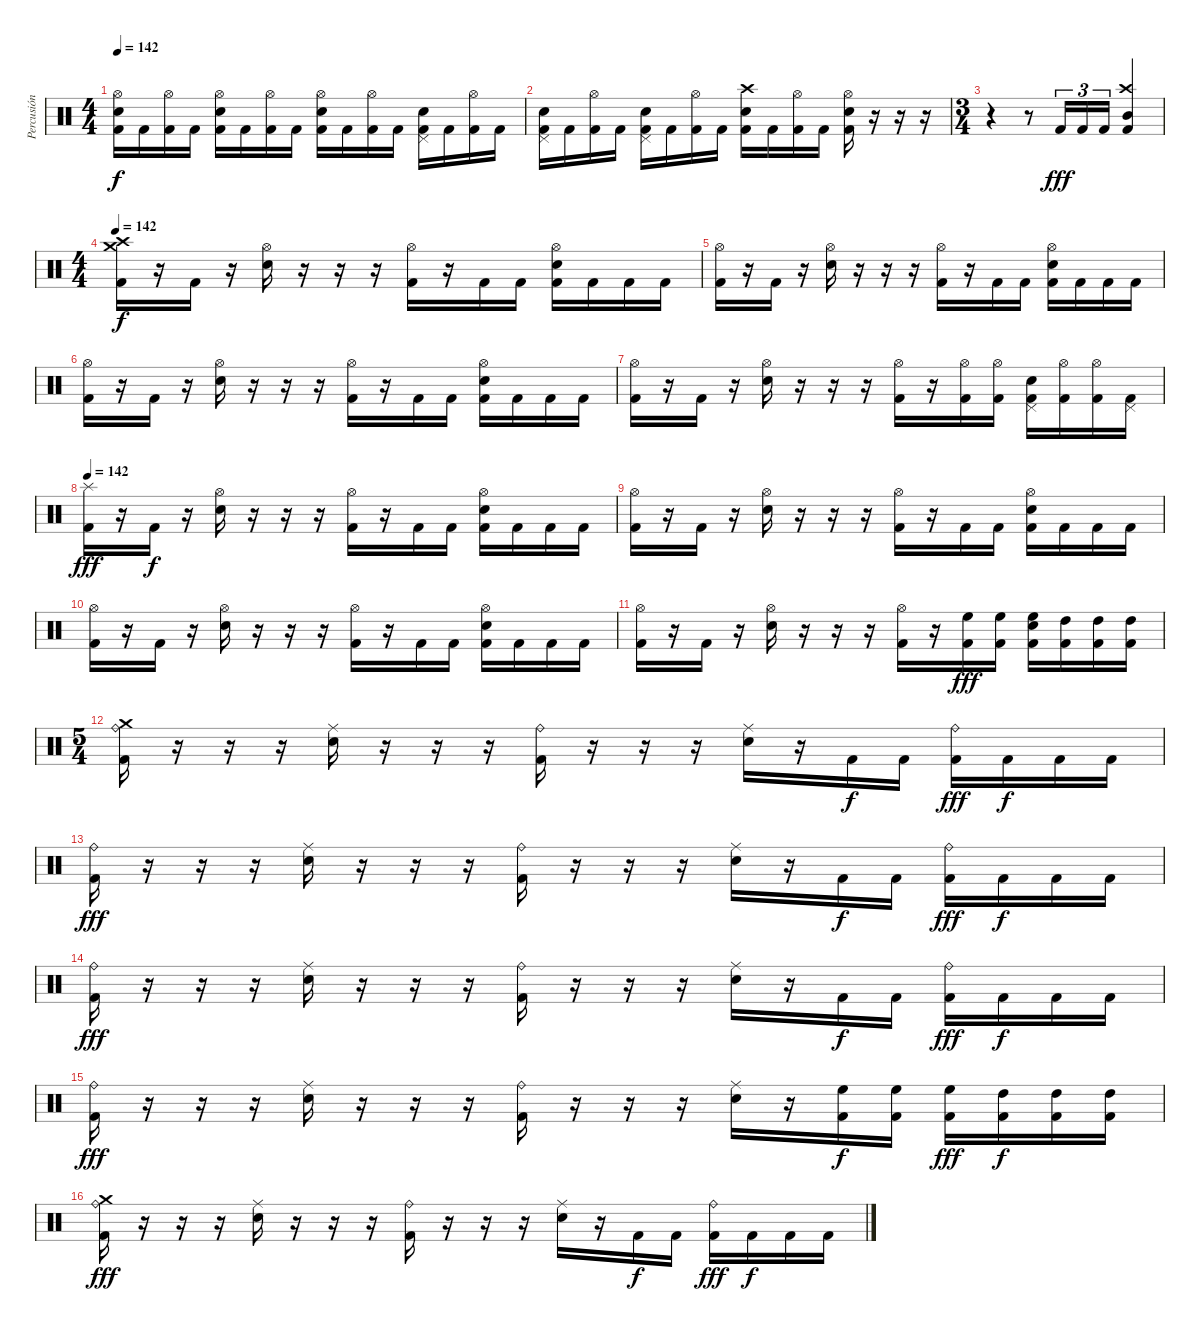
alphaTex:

\track ("Percusión" "Percusión") {instrument percussion}
\staff {score}
\articulation defaults
\ts (4 4)
\tempo 142
\clef neutral
\ks c
("Hi-Hat (open)" "Electric Snare (hit)" "Kick (hit) 2").16{dy f} "Kick (hit) 2".16 ("Hi-Hat (open)" "Kick (hit) 2").16 "Kick (hit) 2".16 ("Hi-Hat (open)" "Electric Snare (hit)" "Kick (hit) 2").16 "Kick (hit) 2".16 ("Hi-Hat (open)" "Kick (hit) 2").16 "Kick (hit) 2".16 ("Hi-Hat (open)" "Electric Snare (hit)" "Kick (hit) 2").16 "Kick (hit) 2".16 ("Hi-Hat (open)" "Kick (hit) 2").16 "Kick (hit) 2".16 ("Pedal Hi-Hat (hit)" "Electric Snare (hit)" "Kick (hit) 2").16 "Kick (hit) 2".16 ("Hi-Hat (open)" "Kick (hit) 2").16 "Kick (hit) 2".16 |
("Pedal Hi-Hat (hit)" "Electric Snare (hit)" "Kick (hit) 2").16 "Kick (hit) 2".16 ("Hi-Hat (open)" "Kick (hit) 2").16 "Kick (hit) 2".16 ("Pedal Hi-Hat (hit)" "Electric Snare (hit)" "Kick (hit) 2").16 "Kick (hit) 2".16 ("Hi-Hat (open)" "Kick (hit) 2").16 "Kick (hit) 2".16 ("Crash high (hit)" "Electric Snare (hit)" "Kick (hit) 2").16 "Kick (hit) 2".16 ("Hi-Hat (open)" "Kick (hit) 2").16 "Kick (hit) 2".16 ("Hi-Hat (open)" "Electric Snare (hit)" "Kick (hit) 2").16 r.16 r.16 r.16 |
\ts (3 4)
r.4 r.8 "Kick (hit) 2".16{tu (3 2) dy fff} "Kick (hit) 2".16{tu (3 2)} "Kick (hit) 2".16{tu (3 2)} ("Crash high (hit)" "Mid Tom (hit)" "Kick (hit) 2").4 |
\ts (4 4)
\tempo 142
("Crash high (hit)" "Crash medium (hit)" "Kick (hit) 2").16{dy f} r.16 "Kick (hit) 2".16 r.16 ("Hi-Hat (open)" "Electric Snare (hit)").16 r.16 r.16 r.16 ("Hi-Hat (open)" "Kick (hit) 2").16 r.16 "Kick (hit) 2".16 "Kick (hit) 2".16 ("Hi-Hat (open)" "Electric Snare (hit)" "Kick (hit) 2").16 "Kick (hit) 2".16 "Kick (hit) 2".16 "Kick (hit) 2".16 |
("Hi-Hat (open)" "Kick (hit) 2").16 r.16 "Kick (hit) 2".16 r.16 ("Hi-Hat (open)" "Electric Snare (hit)").16 r.16 r.16 r.16 ("Hi-Hat (open)" "Kick (hit) 2").16 r.16 "Kick (hit) 2".16 "Kick (hit) 2".16 ("Hi-Hat (open)" "Electric Snare (hit)" "Kick (hit) 2").16 "Kick (hit) 2".16 "Kick (hit) 2".16 "Kick (hit) 2".16 |
("Hi-Hat (open)" "Kick (hit) 2").16 r.16 "Kick (hit) 2".16 r.16 ("Hi-Hat (open)" "Electric Snare (hit)").16 r.16 r.16 r.16 ("Hi-Hat (open)" "Kick (hit) 2").16 r.16 "Kick (hit) 2".16 "Kick (hit) 2".16 ("Hi-Hat (open)" "Electric Snare (hit)" "Kick (hit) 2").16 "Kick (hit) 2".16 "Kick (hit) 2".16 "Kick (hit) 2".16 |
("Hi-Hat (open)" "Kick (hit) 2").16 r.16 "Kick (hit) 2".16 r.16 ("Hi-Hat (open)" "Electric Snare (hit)").16 r.16 r.16 r.16 ("Hi-Hat (open)" "Kick (hit) 2").16 r.16 ("Hi-Hat (open)" "Kick (hit) 2").16 ("Hi-Hat (open)" "Kick (hit) 2").16 ("Pedal Hi-Hat (hit)" "Electric Snare (hit)" "Kick (hit) 2").16 ("Hi-Hat (open)" "Kick (hit) 2").16 ("Hi-Hat (open)" "Kick (hit) 2").16 ("Pedal Hi-Hat (hit)" "Kick (hit) 2").16 |
\tempo 142
("Splash (hit)" "Kick (hit) 2").16{dy fff} r.16 "Kick (hit) 2".16{dy f} r.16 ("Hi-Hat (open)" "Electric Snare (hit)").16 r.16 r.16 r.16 ("Hi-Hat (open)" "Kick (hit) 2").16 r.16 "Kick (hit) 2".16 "Kick (hit) 2".16 ("Hi-Hat (open)" "Electric Snare (hit)" "Kick (hit) 2").16 "Kick (hit) 2".16 "Kick (hit) 2".16 "Kick (hit) 2".16 |
("Hi-Hat (open)" "Kick (hit) 2").16 r.16 "Kick (hit) 2".16 r.16 ("Hi-Hat (open)" "Electric Snare (hit)").16 r.16 r.16 r.16 ("Hi-Hat (open)" "Kick (hit) 2").16 r.16 "Kick (hit) 2".16 "Kick (hit) 2".16 ("Hi-Hat (open)" "Electric Snare (hit)" "Kick (hit) 2").16 "Kick (hit) 2".16 "Kick (hit) 2".16 "Kick (hit) 2".16 |
("Hi-Hat (open)" "Kick (hit) 2").16 r.16 "Kick (hit) 2".16 r.16 ("Hi-Hat (open)" "Electric Snare (hit)").16 r.16 r.16 r.16 ("Hi-Hat (open)" "Kick (hit) 2").16 r.16 "Kick (hit) 2".16 "Kick (hit) 2".16 ("Hi-Hat (open)" "Electric Snare (hit)" "Kick (hit) 2").16 "Kick (hit) 2".16 "Kick (hit) 2".16 "Kick (hit) 2".16 |
("Hi-Hat (open)" "Kick (hit) 2").16 r.16 "Kick (hit) 2".16 r.16 ("Hi-Hat (open)" "Electric Snare (hit)").16 r.16 r.16 r.16 ("Hi-Hat (open)" "Kick (hit) 2").16 r.16 ("High Floor Tom (hit)" "Kick (hit) 2").16{dy fff} ("High Floor Tom (hit)" "Kick (hit) 2").16 ("High Floor Tom (hit)" "Electric Snare (hit)" "Kick (hit) 2").16 ("High Tom (hit)" "Kick (hit) 2").16 ("High Tom (hit)" "Kick (hit) 2").16 ("High Tom (hit)" "Kick (hit) 2").16 |
\ts (5 4)
("Crash medium (hit)" "Ride (bell)" "Kick (hit) 2").16 r.16 r.16 r.16 ("Ride (middle)" "Electric Snare (hit)").16 r.16 r.16 r.16 ("Ride (bell)" "Kick (hit) 2").16 r.16 r.16 r.16 ("Ride (middle)" "Electric Snare (hit)").16 r.16 "Kick (hit) 2".16{dy f} "Kick (hit) 2".16 ("Ride (bell)" "Kick (hit) 2").16{dy fff} "Kick (hit) 2".16{dy f} "Kick (hit) 2".16 "Kick (hit) 2".16 |
("Ride (bell)" "Kick (hit) 2").16{dy fff} r.16 r.16 r.16 ("Ride (middle)" "Electric Snare (hit)").16 r.16 r.16 r.16 ("Ride (bell)" "Kick (hit) 2").16 r.16 r.16 r.16 ("Ride (middle)" "Electric Snare (hit)").16 r.16 "Kick (hit) 2".16{dy f} "Kick (hit) 2".16 ("Ride (bell)" "Kick (hit) 2").16{dy fff} "Kick (hit) 2".16{dy f} "Kick (hit) 2".16 "Kick (hit) 2".16 |
("Ride (bell)" "Kick (hit) 2").16{dy fff} r.16 r.16 r.16 ("Ride (middle)" "Electric Snare (hit)").16 r.16 r.16 r.16 ("Ride (bell)" "Kick (hit) 2").16 r.16 r.16 r.16 ("Ride (middle)" "Electric Snare (hit)").16 r.16 "Kick (hit) 2".16{dy f} "Kick (hit) 2".16 ("Ride (bell)" "Kick (hit) 2").16{dy fff} "Kick (hit) 2".16{dy f} "Kick (hit) 2".16 "Kick (hit) 2".16 |
("Ride (bell)" "Kick (hit) 2").16{dy fff} r.16 r.16 r.16 ("Ride (middle)" "Electric Snare (hit)").16 r.16 r.16 r.16 ("Ride (bell)" "Kick (hit) 2").16 r.16 r.16 r.16 ("Ride (middle)" "Electric Snare (hit)").16 r.16 ("High Floor Tom (hit)" "Kick (hit) 2").16{dy f} ("High Floor Tom (hit)" "Kick (hit) 2").16 ("High Floor Tom (hit)" "Kick (hit) 2").16{dy fff} ("High Tom (hit)" "Kick (hit) 2").16{dy f} ("High Tom (hit)" "Kick (hit) 2").16 ("High Tom (hit)" "Kick (hit) 2").16 |
("Crash medium (hit)" "Ride (bell)" "Kick (hit) 2").16{dy fff} r.16 r.16 r.16 ("Ride (middle)" "Electric Snare (hit)").16 r.16 r.16 r.16 ("Ride (bell)" "Kick (hit) 2").16 r.16 r.16 r.16 ("Ride (middle)" "Electric Snare (hit)").16 r.16 "Kick (hit) 2".16{dy f} "Kick (hit) 2".16 ("Ride (bell)" "Kick (hit) 2").16{dy fff} "Kick (hit) 2".16{dy f} "Kick (hit) 2".16 "Kick (hit) 2".16
